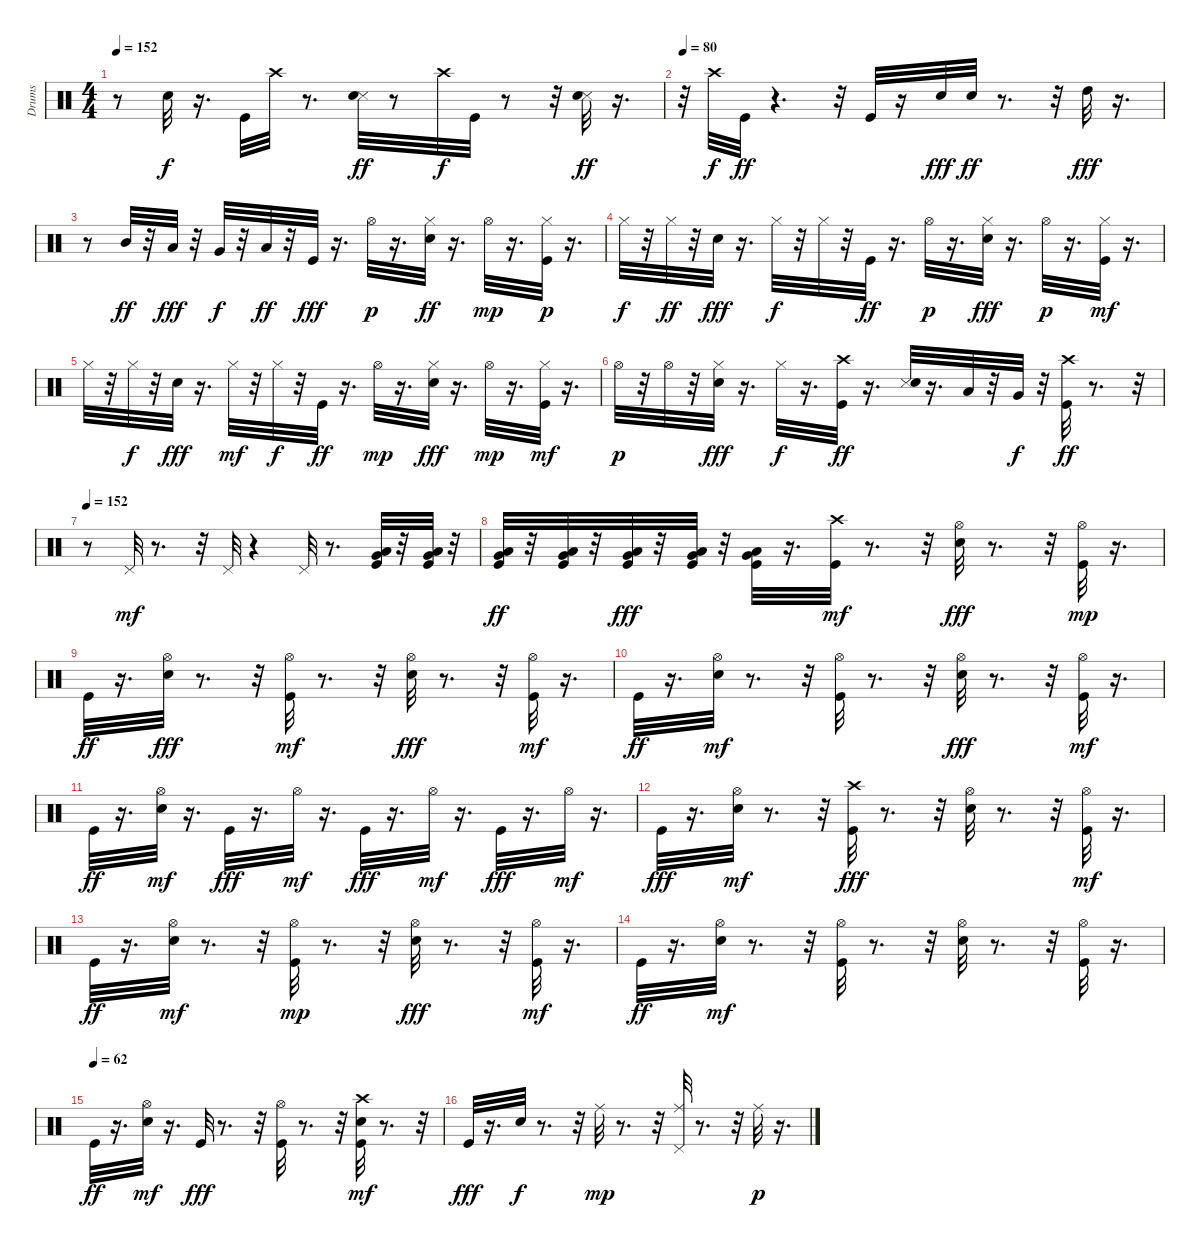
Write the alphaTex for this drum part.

\track ("Drums" "Drums") {instrument percussion}
\staff {score}
\articulation defaults
\ts (4 4)
\tempo 152
\clef neutral
\ks c
r.8{dy f} "Snare (hit) 2".32 r.16{d} "Kick (hit)".32 "Crash high (hit)".32 r.8{d} ("Snare (side stick) 3" "Snare (hit) 2").32{dy ff} r.8 "Crash high (hit)".32{dy f} "Kick (hit)".32 r.8 r.32 ("Snare (side stick) 3" "Snare (hit) 2").32{dy ff} r.16{d} |
\tempo 80
r.32 "Crash high (hit)".32{dy f} "Kick (hit)".32{dy ff} r.4{d} r.32 "Kick (hit)".32 r.16 "Snare (hit) 2".32{dy fff} "Snare (hit) 2".32{dy ff} r.8{d} r.32 "High Tom (hit)".32{dy fff} r.16{d} |
r.8 "Mid Tom (hit)".32{dy ff} r.32 "Low Tom (hit)".32{dy fff} r.32 "Very Low Tom (hit)".32{dy f} r.32 "Low Floor Tom (hit)".32{dy ff} r.32 "Kick (hit)".32{dy fff} r.16{d} "Hi-Hat (open)".32{dy p} r.16{d} ("Hi-Hat (closed)" "Snare (hit) 2").32{dy ff} r.16{d} "Hi-Hat (open)".32{dy mp} r.16{d} ("Kick (hit)" "Hi-Hat (closed)").32{dy p} r.16{d} |
"Hi-Hat (closed)".32{dy f} r.32 "Hi-Hat (closed)".32{dy ff} r.32 "Snare (hit) 2".32{dy fff} r.16{d} "Hi-Hat (closed)".32{dy f} r.32 "Hi-Hat (closed)".32 r.32 "Kick (hit)".32{dy ff} r.16{d} "Hi-Hat (open)".32{dy p} r.16{d} ("Hi-Hat (closed)" "Snare (hit) 2").32{dy fff} r.16{d} "Hi-Hat (open)".32{dy p} r.16{d} ("Kick (hit)" "Hi-Hat (closed)").32{dy mf} r.16{d} |
"Hi-Hat (closed)".32 r.32 "Hi-Hat (closed)".32{dy f} r.32 "Snare (hit) 2".32{dy fff} r.16{d} "Hi-Hat (closed)".32{dy mf} r.32 "Hi-Hat (closed)".32{dy f} r.32 "Kick (hit)".32{dy ff} r.16{d} "Hi-Hat (open)".32{dy mp} r.16{d} ("Hi-Hat (closed)" "Snare (hit) 2").32{dy fff} r.16{d} "Hi-Hat (open)".32{dy mp} r.16{d} ("Hi-Hat (closed)" "Kick (hit)").32{dy mf} r.16{d} |
"Hi-Hat (open)".32{dy p} r.32 "Hi-Hat (open)".32 r.32 ("Hi-Hat (closed)" "Snare (hit) 2").32{dy fff} r.16{d} "Hi-Hat (closed)".32{dy f} r.16{d} ("Kick (hit)" "Crash high (hit)").32{dy ff} r.16{d} ("Snare (side stick) 3" "Snare (hit) 2").32 r.16{d} "Low Tom (hit)".32 r.32 "Very Low Tom (hit)".32{dy f} r.32 ("Kick (hit)" "Crash high (hit)").32{dy ff} r.8{d} r.32 |
\tempo 152
r.8 "Pedal Hi-Hat (hit)".32{dy mf} r.8{d} r.32 "Pedal Hi-Hat (hit)".32 r.4 "Pedal Hi-Hat (hit)".32 r.8{d} ("Low Floor Tom (hit)" "Very Low Tom (hit)" "Kick (hit)").32 r.32 ("Low Floor Tom (hit)" "Very Low Tom (hit)" "Kick (hit)").32 r.32 |
("Low Floor Tom (hit)" "Very Low Tom (hit)" "Kick (hit)").32{dy ff} r.32 ("Kick (hit)" "Low Floor Tom (hit)" "Very Low Tom (hit)").32 r.32 ("Kick (hit)" "Very Low Tom (hit)" "Low Floor Tom (hit)").32{dy fff} r.32 ("Kick (hit)" "Very Low Tom (hit)" "Low Floor Tom (hit)").32 r.32 ("Very Low Tom (hit)" "Low Floor Tom (hit)" "Kick (hit)").32 r.16{d} ("Kick (hit)" "Crash high (hit)").32{dy mf} r.8{d} r.32 ("Hi-Hat (open)" "Snare (hit) 2").32{dy fff} r.8{d} r.32 ("Hi-Hat (open)" "Kick (hit)").32{dy mp} r.16{d} |
"Kick (hit)".32{dy ff} r.16{d} ("Hi-Hat (open)" "Snare (hit) 2").32{dy fff} r.8{d} r.32 ("Hi-Hat (open)" "Kick (hit)").32{dy mf} r.8{d} r.32 ("Hi-Hat (open)" "Snare (hit) 2").32{dy fff} r.8{d} r.32 ("Kick (hit)" "Hi-Hat (open)").32{dy mf} r.16{d} |
"Kick (hit)".32{dy ff} r.16{d} ("Snare (hit) 2" "Hi-Hat (open)").32{dy mf} r.8{d} r.32 ("Kick (hit)" "Hi-Hat (open)").32 r.8{d} r.32 ("Hi-Hat (open)" "Snare (hit) 2").32{dy fff} r.8{d} r.32 ("Kick (hit)" "Hi-Hat (open)").32{dy mf} r.16{d} |
"Kick (hit)".32{dy ff} r.16{d} ("Snare (hit) 2" "Hi-Hat (open)").32{dy mf} r.16{d} "Kick (hit)".32{dy fff} r.16{d} "Hi-Hat (open)".32{dy mf} r.16{d} "Kick (hit)".32{dy fff} r.16{d} "Hi-Hat (open)".32{dy mf} r.16{d} "Kick (hit)".32{dy fff} r.16{d} "Hi-Hat (open)".32{dy mf} r.16{d} |
"Kick (hit)".32{dy fff} r.16{d} ("Snare (hit) 2" "Hi-Hat (open)").32{dy mf} r.8{d} r.32 ("Crash high (hit)" "Kick (hit)").32{dy fff} r.8{d} r.32 ("Hi-Hat (open)" "Snare (hit) 2").32 r.8{d} r.32 ("Kick (hit)" "Hi-Hat (open)").32{dy mf} r.16{d} |
"Kick (hit)".32{dy ff} r.16{d} ("Snare (hit) 2" "Hi-Hat (open)").32{dy mf} r.8{d} r.32 ("Hi-Hat (open)" "Kick (hit)").32{dy mp} r.8{d} r.32 ("Hi-Hat (open)" "Snare (hit) 2").32{dy fff} r.8{d} r.32 ("Kick (hit)" "Hi-Hat (open)").32{dy mf} r.16{d} |
"Kick (hit)".32{dy ff} r.16{d} ("Snare (hit) 2" "Hi-Hat (open)").32{dy mf} r.8{d} r.32 ("Kick (hit)" "Hi-Hat (open)").32 r.8{d} r.32 ("Snare (hit) 2" "Hi-Hat (open)").32 r.8{d} r.32 ("Kick (hit)" "Hi-Hat (open)").32 r.16{d} |
\tempo (62)
"Kick (hit)".32{dy ff} r.16{d} ("Snare (hit) 2" "Hi-Hat (open)").32{dy mf} r.16{d} "Kick (hit)".32{dy fff} r.8{d} r.32 ("Hi-Hat (open)" "Kick (hit)").32 r.8{d} r.32 ("Snare (hit) 2" "Kick (hit)" "Crash high (hit)").32{dy mf} r.8{d} r.32 |
"Kick (hit)".32{dy fff} r.16{d} "Snare (hit) 2".32{dy f} r.8{d} r.32 "Ride (middle)".32{dy mp} r.8{d} r.32 ("Pedal Hi-Hat (hit)" "Ride (middle)").32 r.8{d} r.32 "Ride (middle)".32{dy p} r.16{d}
